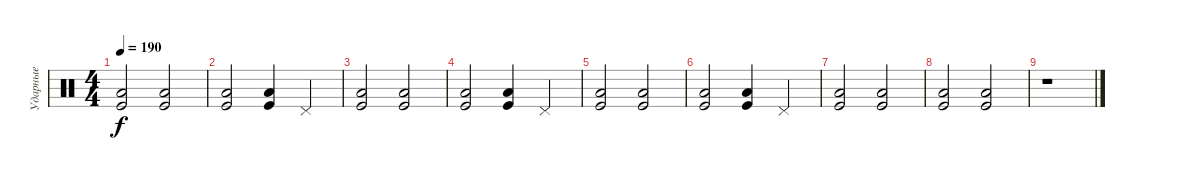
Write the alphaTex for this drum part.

\track ("Ударные" "Ударные") {instrument percussion}
\staff {score}
\articulation defaults
\ts (4 4)
\tempo 190
\clef neutral
\ks c
("Low Tom (hit)" "Kick (hit)").2{dy f} ("Low Tom (hit)" "Kick (hit)").2 |
("Low Tom (hit)" "Kick (hit)").2 ("Low Tom (hit)" "Kick (hit)").4 "Pedal Hi-Hat (hit)".4 |
("Low Tom (hit)" "Kick (hit)").2 ("Low Tom (hit)" "Kick (hit)").2 |
("Low Tom (hit)" "Kick (hit)").2 ("Low Tom (hit)" "Kick (hit)").4 "Pedal Hi-Hat (hit)".4 |
("Low Tom (hit)" "Kick (hit)").2 ("Low Tom (hit)" "Kick (hit)").2 |
("Low Tom (hit)" "Kick (hit)").2 ("Low Tom (hit)" "Kick (hit)").4 "Pedal Hi-Hat (hit)".4 |
("Low Tom (hit)" "Kick (hit)").2 ("Low Tom (hit)" "Kick (hit)").2 |
("Low Tom (hit)" "Kick (hit)").2 ("Low Tom (hit)" "Kick (hit)").2 |
r.1
